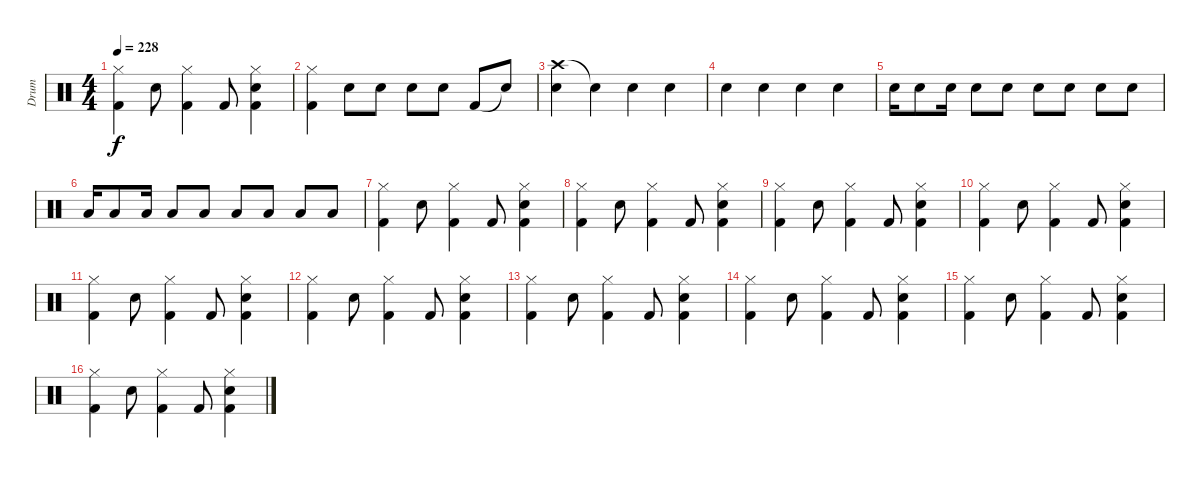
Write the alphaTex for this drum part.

\track ("Drum" "Drum") {instrument percussion}
\staff {score}
\articulation defaults
\ts (4 4)
\tempo 228
\clef neutral
\ks c
("Hi-Hat (closed)" "Kick (hit) 2").4{dy f} "Snare (hit) 2".8 ("Hi-Hat (closed)" "Kick (hit) 2").4 "Kick (hit) 2".8 ("Hi-Hat (closed)" "Snare (hit) 2" "Kick (hit) 2").4 |
("Hi-Hat (closed)" "Kick (hit) 2").4 "Snare (hit) 2".8 "Snare (hit) 2".8 "Snare (hit) 2".8 "Snare (hit) 2".8 "Kick (hit) 2".8 "Snare (hit)"{t}.8 |
("Crash high (hit)" "Snare (hit) 2").4 "Snare (hit)"{t}.4 "Snare (hit) 2".4 "Snare (hit) 2".4 |
"Snare (hit) 2".4 "Snare (hit) 2".4 "Snare (hit) 2".4 "Snare (hit) 2".4 |
"Snare (hit) 2".16 "Snare (hit) 2".8 "Snare (hit) 2".16 "Snare (hit) 2".8 "Snare (hit) 2".8 "Snare (hit) 2".8 "Snare (hit) 2".8 "Snare (hit) 2".8 "Snare (hit) 2".8 |
"Low Tom (hit)".16 "Low Tom (hit)".8 "Low Tom (hit)".16 "Low Tom (hit)".8 "Low Tom (hit)".8 "Low Tom (hit)".8 "Low Tom (hit)".8 "Low Tom (hit)".8 "Low Tom (hit)".8 |
("Hi-Hat (closed)" "Kick (hit) 2").4 "Snare (hit) 2".8 ("Hi-Hat (closed)" "Kick (hit) 2").4 "Kick (hit) 2".8 ("Hi-Hat (closed)" "Snare (hit) 2" "Kick (hit) 2").4 |
("Hi-Hat (closed)" "Kick (hit) 2").4 "Snare (hit) 2".8 ("Hi-Hat (closed)" "Kick (hit) 2").4 "Kick (hit) 2".8 ("Hi-Hat (closed)" "Snare (hit) 2" "Kick (hit) 2").4 |
("Hi-Hat (closed)" "Kick (hit) 2").4 "Snare (hit) 2".8 ("Hi-Hat (closed)" "Kick (hit) 2").4 "Kick (hit) 2".8 ("Hi-Hat (closed)" "Snare (hit) 2" "Kick (hit) 2").4 |
("Hi-Hat (closed)" "Kick (hit) 2").4 "Snare (hit) 2".8 ("Hi-Hat (closed)" "Kick (hit) 2").4 "Kick (hit) 2".8 ("Hi-Hat (closed)" "Snare (hit) 2" "Kick (hit) 2").4 |
("Hi-Hat (closed)" "Kick (hit) 2").4 "Snare (hit) 2".8 ("Hi-Hat (closed)" "Kick (hit) 2").4 "Kick (hit) 2".8 ("Hi-Hat (closed)" "Snare (hit) 2" "Kick (hit) 2").4 |
("Hi-Hat (closed)" "Kick (hit) 2").4 "Snare (hit) 2".8 ("Hi-Hat (closed)" "Kick (hit) 2").4 "Kick (hit) 2".8 ("Hi-Hat (closed)" "Snare (hit) 2" "Kick (hit) 2").4 |
("Hi-Hat (closed)" "Kick (hit) 2").4 "Snare (hit) 2".8 ("Hi-Hat (closed)" "Kick (hit) 2").4 "Kick (hit) 2".8 ("Hi-Hat (closed)" "Snare (hit) 2" "Kick (hit) 2").4 |
("Hi-Hat (closed)" "Kick (hit) 2").4 "Snare (hit) 2".8 ("Hi-Hat (closed)" "Kick (hit) 2").4 "Kick (hit) 2".8 ("Hi-Hat (closed)" "Snare (hit) 2" "Kick (hit) 2").4 |
("Hi-Hat (closed)" "Kick (hit) 2").4 "Snare (hit) 2".8 ("Hi-Hat (closed)" "Kick (hit) 2").4 "Kick (hit) 2".8 ("Hi-Hat (closed)" "Snare (hit) 2" "Kick (hit) 2").4 |
("Hi-Hat (closed)" "Kick (hit) 2").4 "Snare (hit) 2".8 ("Hi-Hat (closed)" "Kick (hit) 2").4 "Kick (hit) 2".8 ("Hi-Hat (closed)" "Snare (hit) 2" "Kick (hit) 2").4
